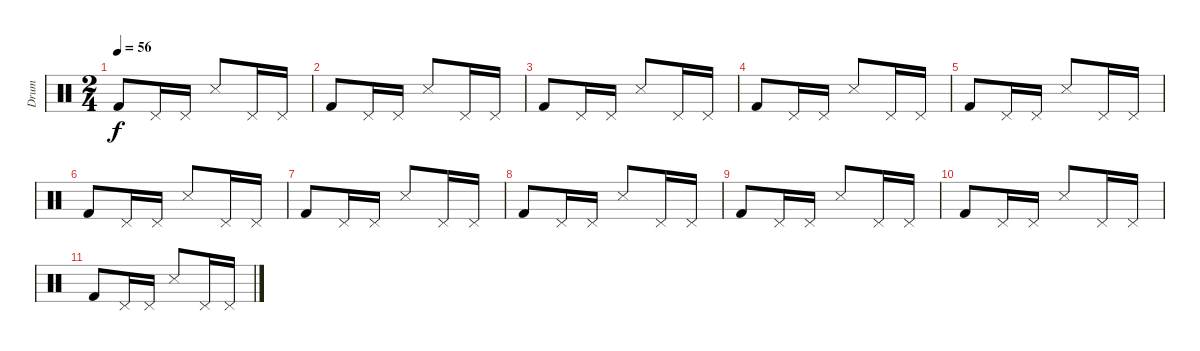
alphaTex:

\track ("Drum" "Drum") {instrument percussion}
\staff {score}
\articulation defaults
\ts (2 4)
\tempo 56
\clef neutral
\ks c "Kick (hit) 2".8{dy f} "Pedal Hi-Hat (hit)".16 "Pedal Hi-Hat (hit)".16 "Snare (side stick) 3".8 "Pedal Hi-Hat (hit)".16 "Pedal Hi-Hat (hit)".16
|
"Kick (hit) 2".8 "Pedal Hi-Hat (hit)".16 "Pedal Hi-Hat (hit)".16 "Snare (side stick) 3".8 "Pedal Hi-Hat (hit)".16 "Pedal Hi-Hat (hit)".16 |
"Kick (hit) 2".8 "Pedal Hi-Hat (hit)".16 "Pedal Hi-Hat (hit)".16 "Snare (side stick) 3".8 "Pedal Hi-Hat (hit)".16 "Pedal Hi-Hat (hit)".16 |
"Kick (hit) 2".8 "Pedal Hi-Hat (hit)".16 "Pedal Hi-Hat (hit)".16 "Snare (side stick) 3".8 "Pedal Hi-Hat (hit)".16 "Pedal Hi-Hat (hit)".16 |
"Kick (hit) 2".8 "Pedal Hi-Hat (hit)".16 "Pedal Hi-Hat (hit)".16 "Snare (side stick) 3".8 "Pedal Hi-Hat (hit)".16 "Pedal Hi-Hat (hit)".16 |
"Kick (hit) 2".8 "Pedal Hi-Hat (hit)".16 "Pedal Hi-Hat (hit)".16 "Snare (side stick) 3".8 "Pedal Hi-Hat (hit)".16 "Pedal Hi-Hat (hit)".16 |
"Kick (hit) 2".8 "Pedal Hi-Hat (hit)".16 "Pedal Hi-Hat (hit)".16 "Snare (side stick) 3".8 "Pedal Hi-Hat (hit)".16 "Pedal Hi-Hat (hit)".16 |
"Kick (hit) 2".8 "Pedal Hi-Hat (hit)".16 "Pedal Hi-Hat (hit)".16 "Snare (side stick) 3".8 "Pedal Hi-Hat (hit)".16 "Pedal Hi-Hat (hit)".16 |
"Kick (hit) 2".8 "Pedal Hi-Hat (hit)".16 "Pedal Hi-Hat (hit)".16 "Snare (side stick) 3".8 "Pedal Hi-Hat (hit)".16 "Pedal Hi-Hat (hit)".16 |
"Kick (hit) 2".8 "Pedal Hi-Hat (hit)".16 "Pedal Hi-Hat (hit)".16 "Snare (side stick) 3".8 "Pedal Hi-Hat (hit)".16 "Pedal Hi-Hat (hit)".16 |
"Kick (hit) 2".8 "Pedal Hi-Hat (hit)".16 "Pedal Hi-Hat (hit)".16 "Snare (side stick) 3".8 "Pedal Hi-Hat (hit)".16 "Pedal Hi-Hat (hit)".16
